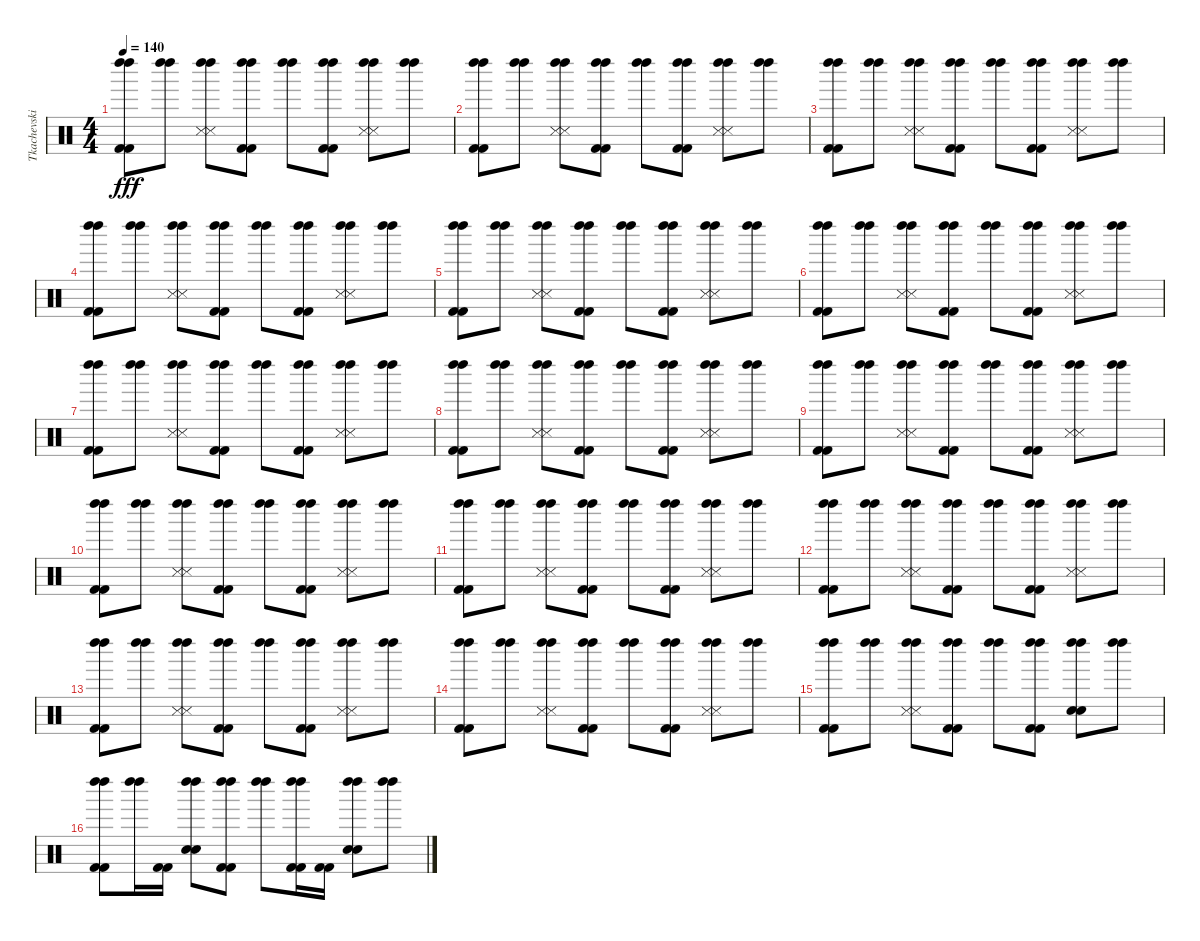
\track ("Tkachevskiy A" "Tkachevski") {instrument percussion}
\staff {score}
\articulation defaults
\ts (4 4)
\tempo 140
\clef neutral
\ks c
("Kick (hit) 2" "Left Maraca (hit)" "Kick (hit) 2" "Left Maraca (hit)").8{dy fff} ("Left Maraca (hit)" "Left Maraca (hit)").8 ("Snare (side stick) 3" "Left Maraca (hit)" "Snare (side stick) 3" "Left Maraca (hit)").8 ("Kick (hit) 2" "Left Maraca (hit)" "Kick (hit) 2" "Left Maraca (hit)").8 ("Left Maraca (hit)" "Left Maraca (hit)").8 ("Kick (hit) 2" "Left Maraca (hit)" "Kick (hit) 2" "Left Maraca (hit)").8 ("Snare (side stick) 3" "Left Maraca (hit)" "Snare (side stick) 3" "Left Maraca (hit)").8 ("Left Maraca (hit)" "Left Maraca (hit)").8 |
("Kick (hit) 2" "Left Maraca (hit)" "Kick (hit) 2" "Left Maraca (hit)").8 ("Left Maraca (hit)" "Left Maraca (hit)").8 ("Snare (side stick) 3" "Left Maraca (hit)" "Snare (side stick) 3" "Left Maraca (hit)").8 ("Kick (hit) 2" "Left Maraca (hit)" "Kick (hit) 2" "Left Maraca (hit)").8 ("Left Maraca (hit)" "Left Maraca (hit)").8 ("Kick (hit) 2" "Left Maraca (hit)" "Kick (hit) 2" "Left Maraca (hit)").8 ("Snare (side stick) 3" "Left Maraca (hit)" "Snare (side stick) 3" "Left Maraca (hit)").8 ("Left Maraca (hit)" "Left Maraca (hit)").8 |
("Kick (hit) 2" "Left Maraca (hit)" "Kick (hit) 2" "Left Maraca (hit)").8 ("Left Maraca (hit)" "Left Maraca (hit)").8 ("Snare (side stick) 3" "Left Maraca (hit)" "Snare (side stick) 3" "Left Maraca (hit)").8 ("Kick (hit) 2" "Left Maraca (hit)" "Kick (hit) 2" "Left Maraca (hit)").8 ("Left Maraca (hit)" "Left Maraca (hit)").8 ("Kick (hit) 2" "Left Maraca (hit)" "Kick (hit) 2" "Left Maraca (hit)").8 ("Snare (side stick) 3" "Left Maraca (hit)" "Snare (side stick) 3" "Left Maraca (hit)").8 ("Left Maraca (hit)" "Left Maraca (hit)").8 |
("Kick (hit) 2" "Left Maraca (hit)" "Kick (hit) 2" "Left Maraca (hit)").8 ("Left Maraca (hit)" "Left Maraca (hit)").8 ("Snare (side stick) 3" "Left Maraca (hit)" "Snare (side stick) 3" "Left Maraca (hit)").8 ("Kick (hit) 2" "Left Maraca (hit)" "Kick (hit) 2" "Left Maraca (hit)").8 ("Left Maraca (hit)" "Left Maraca (hit)").8 ("Kick (hit) 2" "Left Maraca (hit)" "Kick (hit) 2" "Left Maraca (hit)").8 ("Snare (side stick) 3" "Left Maraca (hit)" "Snare (side stick) 3" "Left Maraca (hit)").8 ("Left Maraca (hit)" "Left Maraca (hit)").8 |
("Kick (hit) 2" "Left Maraca (hit)" "Kick (hit) 2" "Left Maraca (hit)").8 ("Left Maraca (hit)" "Left Maraca (hit)").8 ("Snare (side stick) 3" "Left Maraca (hit)" "Snare (side stick) 3" "Left Maraca (hit)").8 ("Kick (hit) 2" "Left Maraca (hit)" "Kick (hit) 2" "Left Maraca (hit)").8 ("Left Maraca (hit)" "Left Maraca (hit)").8 ("Kick (hit) 2" "Left Maraca (hit)" "Kick (hit) 2" "Left Maraca (hit)").8 ("Snare (side stick) 3" "Left Maraca (hit)" "Snare (side stick) 3" "Left Maraca (hit)").8 ("Left Maraca (hit)" "Left Maraca (hit)").8 |
("Kick (hit) 2" "Left Maraca (hit)" "Kick (hit) 2" "Left Maraca (hit)").8 ("Left Maraca (hit)" "Left Maraca (hit)").8 ("Snare (side stick) 3" "Left Maraca (hit)" "Snare (side stick) 3" "Left Maraca (hit)").8 ("Kick (hit) 2" "Left Maraca (hit)" "Kick (hit) 2" "Left Maraca (hit)").8 ("Left Maraca (hit)" "Left Maraca (hit)").8 ("Kick (hit) 2" "Left Maraca (hit)" "Kick (hit) 2" "Left Maraca (hit)").8 ("Snare (side stick) 3" "Left Maraca (hit)" "Snare (side stick) 3" "Left Maraca (hit)").8 ("Left Maraca (hit)" "Left Maraca (hit)").8 |
("Kick (hit) 2" "Left Maraca (hit)" "Kick (hit) 2" "Left Maraca (hit)").8 ("Left Maraca (hit)" "Left Maraca (hit)").8 ("Snare (side stick) 3" "Left Maraca (hit)" "Snare (side stick) 3" "Left Maraca (hit)").8 ("Kick (hit) 2" "Left Maraca (hit)" "Kick (hit) 2" "Left Maraca (hit)").8 ("Left Maraca (hit)" "Left Maraca (hit)").8 ("Kick (hit) 2" "Left Maraca (hit)" "Kick (hit) 2" "Left Maraca (hit)").8 ("Snare (side stick) 3" "Left Maraca (hit)" "Snare (side stick) 3" "Left Maraca (hit)").8 ("Left Maraca (hit)" "Left Maraca (hit)").8 |
("Kick (hit) 2" "Left Maraca (hit)" "Kick (hit) 2" "Left Maraca (hit)").8 ("Left Maraca (hit)" "Left Maraca (hit)").8 ("Snare (side stick) 3" "Left Maraca (hit)" "Snare (side stick) 3" "Left Maraca (hit)").8 ("Kick (hit) 2" "Left Maraca (hit)" "Kick (hit) 2" "Left Maraca (hit)").8 ("Left Maraca (hit)" "Left Maraca (hit)").8 ("Kick (hit) 2" "Left Maraca (hit)" "Kick (hit) 2" "Left Maraca (hit)").8 ("Snare (side stick) 3" "Left Maraca (hit)" "Snare (side stick) 3" "Left Maraca (hit)").8 ("Left Maraca (hit)" "Left Maraca (hit)").8 |
("Kick (hit) 2" "Left Maraca (hit)" "Kick (hit) 2" "Left Maraca (hit)").8 ("Left Maraca (hit)" "Left Maraca (hit)").8 ("Snare (side stick) 3" "Left Maraca (hit)" "Snare (side stick) 3" "Left Maraca (hit)").8 ("Kick (hit) 2" "Left Maraca (hit)" "Kick (hit) 2" "Left Maraca (hit)").8 ("Left Maraca (hit)" "Left Maraca (hit)").8 ("Kick (hit) 2" "Left Maraca (hit)" "Kick (hit) 2" "Left Maraca (hit)").8 ("Snare (side stick) 3" "Left Maraca (hit)" "Snare (side stick) 3" "Left Maraca (hit)").8 ("Left Maraca (hit)" "Left Maraca (hit)").8 |
("Kick (hit) 2" "Left Maraca (hit)" "Kick (hit) 2" "Left Maraca (hit)").8 ("Left Maraca (hit)" "Left Maraca (hit)").8 ("Snare (side stick) 3" "Left Maraca (hit)" "Snare (side stick) 3" "Left Maraca (hit)").8 ("Kick (hit) 2" "Left Maraca (hit)" "Kick (hit) 2" "Left Maraca (hit)").8 ("Left Maraca (hit)" "Left Maraca (hit)").8 ("Kick (hit) 2" "Left Maraca (hit)" "Kick (hit) 2" "Left Maraca (hit)").8 ("Snare (side stick) 3" "Left Maraca (hit)" "Snare (side stick) 3" "Left Maraca (hit)").8 ("Left Maraca (hit)" "Left Maraca (hit)").8 |
("Kick (hit) 2" "Left Maraca (hit)" "Kick (hit) 2" "Left Maraca (hit)").8 ("Left Maraca (hit)" "Left Maraca (hit)").8 ("Snare (side stick) 3" "Left Maraca (hit)" "Snare (side stick) 3" "Left Maraca (hit)").8 ("Kick (hit) 2" "Left Maraca (hit)" "Kick (hit) 2" "Left Maraca (hit)").8 ("Left Maraca (hit)" "Left Maraca (hit)").8 ("Kick (hit) 2" "Left Maraca (hit)" "Kick (hit) 2" "Left Maraca (hit)").8 ("Snare (side stick) 3" "Left Maraca (hit)" "Snare (side stick) 3" "Left Maraca (hit)").8 ("Left Maraca (hit)" "Left Maraca (hit)").8 |
("Kick (hit) 2" "Left Maraca (hit)" "Kick (hit) 2" "Left Maraca (hit)").8 ("Left Maraca (hit)" "Left Maraca (hit)").8 ("Snare (side stick) 3" "Left Maraca (hit)" "Snare (side stick) 3" "Left Maraca (hit)").8 ("Kick (hit) 2" "Left Maraca (hit)" "Kick (hit) 2" "Left Maraca (hit)").8 ("Left Maraca (hit)" "Left Maraca (hit)").8 ("Kick (hit) 2" "Left Maraca (hit)" "Kick (hit) 2" "Left Maraca (hit)").8 ("Snare (side stick) 3" "Left Maraca (hit)" "Snare (side stick) 3" "Left Maraca (hit)").8 ("Left Maraca (hit)" "Left Maraca (hit)").8 |
("Kick (hit) 2" "Left Maraca (hit)" "Kick (hit) 2" "Left Maraca (hit)").8 ("Left Maraca (hit)" "Left Maraca (hit)").8 ("Snare (side stick) 3" "Left Maraca (hit)" "Snare (side stick) 3" "Left Maraca (hit)").8 ("Kick (hit) 2" "Left Maraca (hit)" "Kick (hit) 2" "Left Maraca (hit)").8 ("Left Maraca (hit)" "Left Maraca (hit)").8 ("Kick (hit) 2" "Left Maraca (hit)" "Kick (hit) 2" "Left Maraca (hit)").8 ("Snare (side stick) 3" "Left Maraca (hit)" "Snare (side stick) 3" "Left Maraca (hit)").8 ("Left Maraca (hit)" "Left Maraca (hit)").8 |
("Kick (hit) 2" "Left Maraca (hit)" "Kick (hit) 2" "Left Maraca (hit)").8 ("Left Maraca (hit)" "Left Maraca (hit)").8 ("Snare (side stick) 3" "Left Maraca (hit)" "Snare (side stick) 3" "Left Maraca (hit)").8 ("Kick (hit) 2" "Left Maraca (hit)" "Kick (hit) 2" "Left Maraca (hit)").8 ("Left Maraca (hit)" "Left Maraca (hit)").8 ("Kick (hit) 2" "Left Maraca (hit)" "Kick (hit) 2" "Left Maraca (hit)").8 ("Snare (side stick) 3" "Left Maraca (hit)" "Snare (side stick) 3" "Left Maraca (hit)").8 ("Left Maraca (hit)" "Left Maraca (hit)").8 |
("Kick (hit) 2" "Left Maraca (hit)" "Kick (hit) 2" "Left Maraca (hit)").8 ("Left Maraca (hit)" "Left Maraca (hit)").8 ("Snare (side stick) 3" "Left Maraca (hit)" "Snare (side stick) 3" "Left Maraca (hit)").8 ("Kick (hit) 2" "Left Maraca (hit)" "Kick (hit) 2" "Left Maraca (hit)").8 ("Left Maraca (hit)" "Left Maraca (hit)").8 ("Kick (hit) 2" "Left Maraca (hit)" "Kick (hit) 2" "Left Maraca (hit)").8 ("Snare (hit) 2" "Left Maraca (hit)" "Snare (hit) 2" "Left Maraca (hit)").8 ("Left Maraca (hit)" "Left Maraca (hit)").8 |
("Kick (hit) 2" "Left Maraca (hit)" "Kick (hit) 2" "Left Maraca (hit)").8 ("Left Maraca (hit)" "Left Maraca (hit)").16 ("Kick (hit) 2" "Kick (hit) 2").16 ("Snare (hit) 2" "Left Maraca (hit)" "Snare (hit) 2" "Left Maraca (hit)").8 ("Kick (hit) 2" "Left Maraca (hit)" "Kick (hit) 2" "Left Maraca (hit)").8 ("Left Maraca (hit)" "Left Maraca (hit)").8 ("Kick (hit) 2" "Left Maraca (hit)" "Kick (hit) 2" "Left Maraca (hit)").16 ("Kick (hit) 2" "Kick (hit) 2").16 ("Snare (hit) 2" "Left Maraca (hit)" "Snare (hit) 2" "Left Maraca (hit)").8 ("Left Maraca (hit)" "Left Maraca (hit)").8
